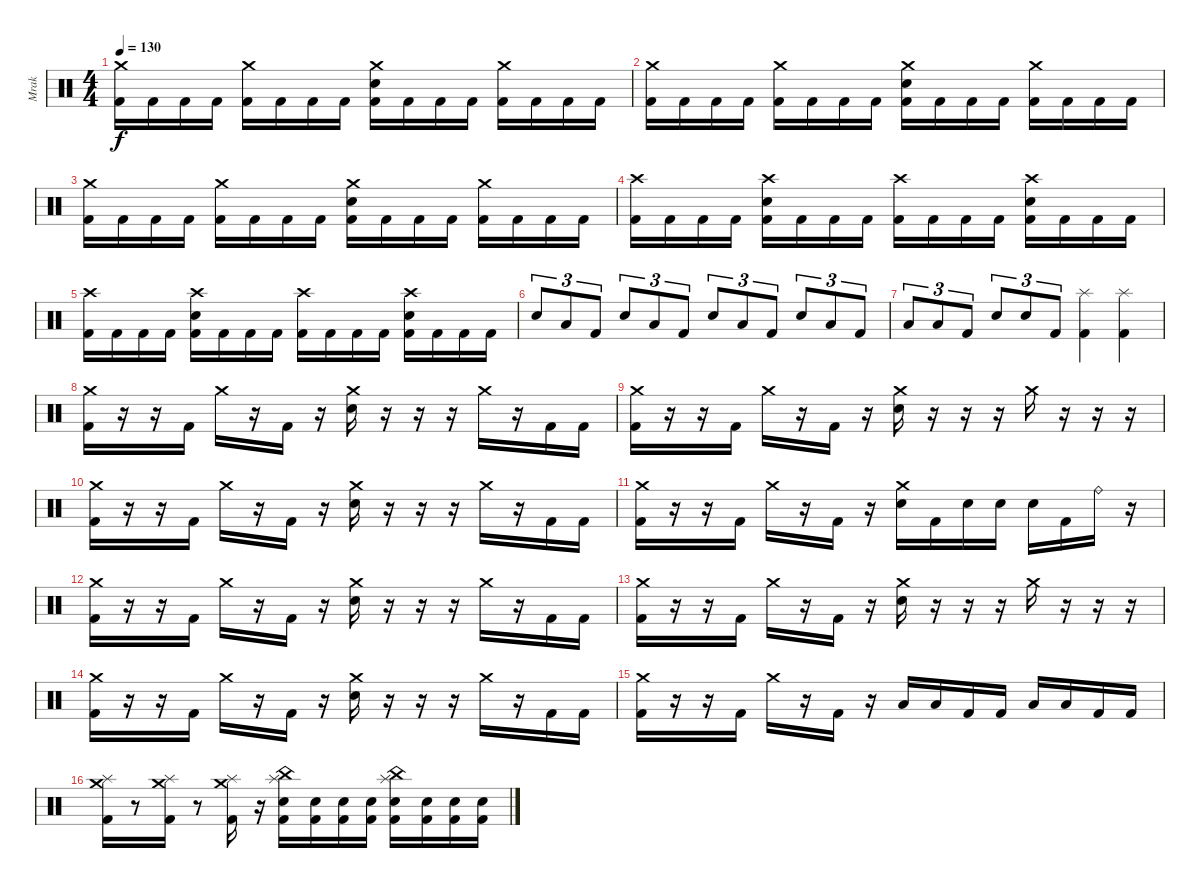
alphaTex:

\track ("Mrak" "Mrak") {instrument percussion}
\staff {score}
\articulation defaults
\ts (4 4)
\tempo 130
\clef neutral
\ks c
("Crash medium (hit)" "Kick (hit) 2").16{dy f} "Kick (hit) 2".16 "Kick (hit) 2".16 "Kick (hit) 2".16 ("Crash medium (hit)" "Kick (hit) 2").16 "Kick (hit) 2".16 "Kick (hit) 2".16 "Kick (hit) 2".16 ("Crash medium (hit)" "Electric Snare (hit)" "Kick (hit) 2").16 "Kick (hit) 2".16 "Kick (hit) 2".16 "Kick (hit) 2".16 ("Crash medium (hit)" "Kick (hit) 2").16 "Kick (hit) 2".16 "Kick (hit) 2".16 "Kick (hit) 2".16 |
("Crash medium (hit)" "Kick (hit) 2").16 "Kick (hit) 2".16 "Kick (hit) 2".16 "Kick (hit) 2".16 ("Crash medium (hit)" "Kick (hit) 2").16 "Kick (hit) 2".16 "Kick (hit) 2".16 "Kick (hit) 2".16 ("Crash medium (hit)" "Electric Snare (hit)" "Kick (hit) 2").16 "Kick (hit) 2".16 "Kick (hit) 2".16 "Kick (hit) 2".16 ("Crash medium (hit)" "Kick (hit) 2").16 "Kick (hit) 2".16 "Kick (hit) 2".16 "Kick (hit) 2".16 |
("Crash medium (hit)" "Kick (hit) 2").16 "Kick (hit) 2".16 "Kick (hit) 2".16 "Kick (hit) 2".16 ("Crash medium (hit)" "Kick (hit) 2").16 "Kick (hit) 2".16 "Kick (hit) 2".16 "Kick (hit) 2".16 ("Crash medium (hit)" "Electric Snare (hit)" "Kick (hit) 2").16 "Kick (hit) 2".16 "Kick (hit) 2".16 "Kick (hit) 2".16 ("Crash medium (hit)" "Kick (hit) 2").16 "Kick (hit) 2".16 "Kick (hit) 2".16 "Kick (hit) 2".16 |
("Crash high (hit)" "Kick (hit) 2").16 "Kick (hit) 2".16 "Kick (hit) 2".16 "Kick (hit) 2".16 ("Crash high (hit)" "Electric Snare (hit)" "Kick (hit) 2").16 "Kick (hit) 2".16 "Kick (hit) 2".16 "Kick (hit) 2".16 ("Crash high (hit)" "Kick (hit) 2").16 "Kick (hit) 2".16 "Kick (hit) 2".16 "Kick (hit) 2".16 ("Crash high (hit)" "Electric Snare (hit)" "Kick (hit) 2").16 "Kick (hit) 2".16 "Kick (hit) 2".16 "Kick (hit) 2".16 |
("Crash high (hit)" "Kick (hit) 2").16 "Kick (hit) 2".16 "Kick (hit) 2".16 "Kick (hit) 2".16 ("Crash high (hit)" "Electric Snare (hit)" "Kick (hit) 2").16 "Kick (hit) 2".16 "Kick (hit) 2".16 "Kick (hit) 2".16 ("Crash high (hit)" "Kick (hit) 2").16 "Kick (hit) 2".16 "Kick (hit) 2".16 "Kick (hit) 2".16 ("Crash high (hit)" "Electric Snare (hit)" "Kick (hit) 2").16 "Kick (hit) 2".16 "Kick (hit) 2".16 "Kick (hit) 2".16 |
"Electric Snare (hit)".8{tu (3 2)} "Low Tom (hit)".8{tu (3 2)} "Kick (hit) 2".8{tu (3 2)} "Electric Snare (hit)".8{tu (3 2)} "Low Tom (hit)".8{tu (3 2)} "Kick (hit) 2".8{tu (3 2)} "Electric Snare (hit)".8{tu (3 2)} "Low Tom (hit)".8{tu (3 2)} "Kick (hit) 2".8{tu (3 2)} "Electric Snare (hit)".8{tu (3 2)} "Low Tom (hit)".8{tu (3 2)} "Kick (hit) 2".8{tu (3 2)} |
"Low Floor Tom (hit)".8{tu (3 2)} "Low Floor Tom (hit)".8{tu (3 2)} "Kick (hit) 2".8{tu (3 2)} "Electric Snare (hit)".8{tu (3 2)} "Electric Snare (hit)".8{tu (3 2)} "Kick (hit) 2".8{tu (3 2)} ("Splash (hit)" "Kick (hit) 2").4 ("Splash (hit)" "Kick (hit) 2").4 |
("Crash medium (hit)" "Kick (hit) 2").16 r.16 r.16 "Kick (hit) 2".16 "Crash medium (hit)".16 r.16 "Kick (hit) 2".16 r.16 ("Crash medium (hit)" "Electric Snare (hit)").16 r.16 r.16 r.16 "Crash medium (hit)".16 r.16 "Kick (hit) 2".16 "Kick (hit) 2".16 |
("Crash medium (hit)" "Kick (hit) 2").16 r.16 r.16 "Kick (hit) 2".16 "Crash medium (hit)".16 r.16 "Kick (hit) 2".16 r.16 ("Crash medium (hit)" "Electric Snare (hit)").16 r.16 r.16 r.16 "Crash medium (hit)".16 r.16 r.16 r.16 |
("Crash medium (hit)" "Kick (hit) 2").16 r.16 r.16 "Kick (hit) 2".16 "Crash medium (hit)".16 r.16 "Kick (hit) 2".16 r.16 ("Crash medium (hit)" "Electric Snare (hit)").16 r.16 r.16 r.16 "Crash medium (hit)".16 r.16 "Kick (hit) 2".16 "Kick (hit) 2".16 |
("Crash medium (hit)" "Kick (hit) 2").16 r.16 r.16 "Kick (hit) 2".16 "Crash medium (hit)".16 r.16 "Kick (hit) 2".16 r.16 ("Crash medium (hit)" "Electric Snare (hit)").16 "Kick (hit) 2".16 "Electric Snare (hit)".16 "Electric Snare (hit)".16 "Electric Snare (hit)".16 "Kick (hit) 2".16 "Ride (bell)".16 r.16 |
("Crash medium (hit)" "Kick (hit) 2").16 r.16 r.16 "Kick (hit) 2".16 "Crash medium (hit)".16 r.16 "Kick (hit) 2".16 r.16 ("Crash medium (hit)" "Electric Snare (hit)").16 r.16 r.16 r.16 "Crash medium (hit)".16 r.16 "Kick (hit) 2".16 "Kick (hit) 2".16 |
("Crash medium (hit)" "Kick (hit) 2").16 r.16 r.16 "Kick (hit) 2".16 "Crash medium (hit)".16 r.16 "Kick (hit) 2".16 r.16 ("Crash medium (hit)" "Electric Snare (hit)").16 r.16 r.16 r.16 "Crash medium (hit)".16 r.16 r.16 r.16 |
("Crash medium (hit)" "Kick (hit) 2").16 r.16 r.16 "Kick (hit) 2".16 "Crash medium (hit)".16 r.16 "Kick (hit) 2".16 r.16 ("Crash medium (hit)" "Electric Snare (hit)").16 r.16 r.16 r.16 "Crash medium (hit)".16 r.16 "Kick (hit) 2".16 "Kick (hit) 2".16 |
("Crash medium (hit)" "Kick (hit) 2").16 r.16 r.16 "Kick (hit) 2".16 "Crash medium (hit)".16 r.16 "Kick (hit) 2".16 r.16 "Low Tom (hit)".16 "Low Tom (hit)".16 "Kick (hit) 2".16 "Kick (hit) 2".16 "Low Floor Tom (hit)".16 "Low Floor Tom (hit)".16 "Kick (hit) 2".16 "Kick (hit) 2".16 |
("Crash medium (hit)" "Splash (hit)" "Kick (hit) 2").16 r.8 ("Crash medium (hit)" "Splash (hit)" "Kick (hit) 2").16 r.8 ("Crash medium (hit)" "Splash (hit)" "Kick (hit) 2").16 r.16 ("China (hit)" "Splash (hit)" "Electric Snare (hit)" "Kick (hit) 2").16 ("Electric Snare (hit)" "Kick (hit) 2").16 ("Electric Snare (hit)" "Kick (hit) 2").16 ("Electric Snare (hit)" "Kick (hit) 2").16 ("China (hit)" "Splash (hit)" "Electric Snare (hit)" "Kick (hit) 2").16 ("Electric Snare (hit)" "Kick (hit) 2").16 ("Electric Snare (hit)" "Kick (hit) 2").16 ("Electric Snare (hit)" "Kick (hit) 2").16
